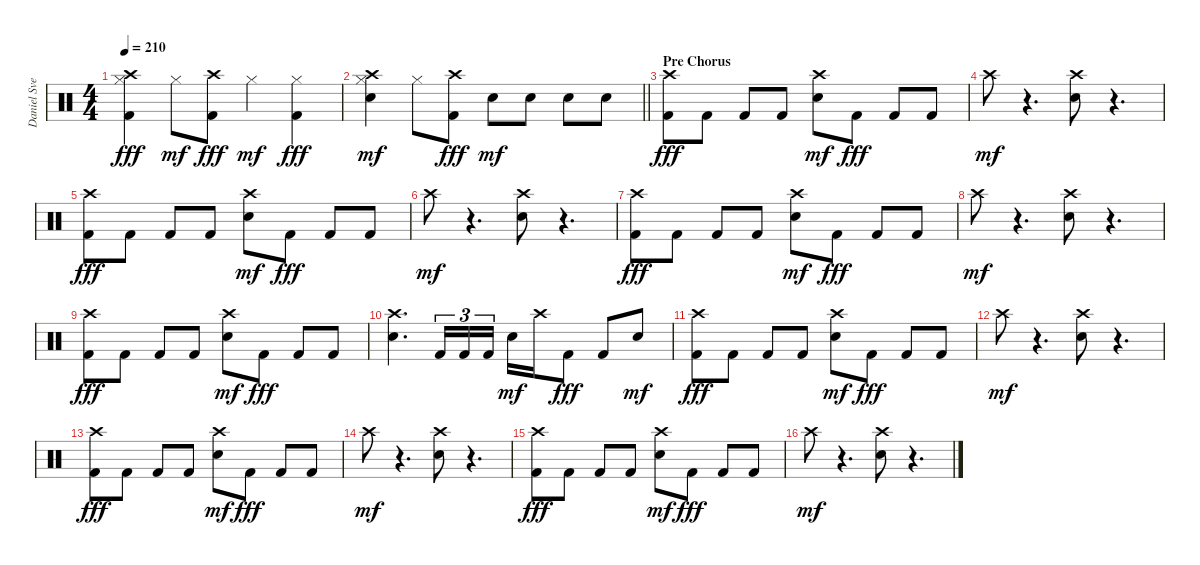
\track ("Daniel Svensson" "Daniel Sve") {instrument percussion}
\staff {score}
\articulation defaults
\ts (4 4)
\tempo 210
\clef neutral
\ks c
("Crash high (hit)" "Hi-Hat (closed)" "Kick (hit) 2").4{dy fff} "Hi-Hat (closed)".8{dy mf} ("Crash high (hit)" "Kick (hit) 2").8{dy fff} "Hi-Hat (closed)".4{dy mf} ("Hi-Hat (closed)" "Kick (hit) 2").4{dy fff} |
\barLineRight lightlight
("Crash high (hit)" "Hi-Hat (closed)" "Electric Snare (hit)").4{dy mf} "Hi-Hat (closed)".8 ("Crash high (hit)" "Kick (hit) 2").8{dy fff} "Electric Snare (hit)".8{dy mf} "Electric Snare (hit)".8 "Electric Snare (hit)".8 "Electric Snare (hit)".8 |
\section ("" "Pre Chorus")
("Crash high (hit)" "Kick (hit) 2").8{dy fff} "Kick (hit) 2".8 "Kick (hit) 2".8 "Kick (hit) 2".8 ("Crash high (hit)" "Electric Snare (hit)").8{dy mf} "Kick (hit) 2".8{dy fff} "Kick (hit) 2".8 "Kick (hit) 2".8 |
"Crash high (hit)".8{dy mf} r.4{d} ("Crash high (hit)" "Electric Snare (hit)").8 r.4{d} |
("Crash high (hit)" "Kick (hit) 2").8{dy fff} "Kick (hit) 2".8 "Kick (hit) 2".8 "Kick (hit) 2".8 ("Crash high (hit)" "Electric Snare (hit)").8{dy mf} "Kick (hit) 2".8{dy fff} "Kick (hit) 2".8 "Kick (hit) 2".8 |
"Crash high (hit)".8{dy mf} r.4{d} ("Crash high (hit)" "Electric Snare (hit)").8 r.4{d} |
("Crash high (hit)" "Kick (hit) 2").8{dy fff} "Kick (hit) 2".8 "Kick (hit) 2".8 "Kick (hit) 2".8 ("Crash high (hit)" "Electric Snare (hit)").8{dy mf} "Kick (hit) 2".8{dy fff} "Kick (hit) 2".8 "Kick (hit) 2".8 |
"Crash high (hit)".8{dy mf} r.4{d} ("Crash high (hit)" "Electric Snare (hit)").8 r.4{d} |
("Crash high (hit)" "Kick (hit) 2").8{dy fff} "Kick (hit) 2".8 "Kick (hit) 2".8 "Kick (hit) 2".8 ("Crash high (hit)" "Electric Snare (hit)").8{dy mf} "Kick (hit) 2".8{dy fff} "Kick (hit) 2".8 "Kick (hit) 2".8 |
("Crash high (hit)" "Electric Snare (hit)").4{d} "Kick (hit) 2".16{tu (3 2)} "Kick (hit) 2".16{tu (3 2)} "Kick (hit) 2".16{tu (3 2)} "Electric Snare (hit)".16{dy mf} "Crash high (hit)".16 "Kick (hit) 2".8{dy fff} "Kick (hit) 2".8 "Electric Snare (hit)".8{dy mf} |
("Crash high (hit)" "Kick (hit) 2").8{dy fff} "Kick (hit) 2".8 "Kick (hit) 2".8 "Kick (hit) 2".8 ("Crash high (hit)" "Electric Snare (hit)").8{dy mf} "Kick (hit) 2".8{dy fff} "Kick (hit) 2".8 "Kick (hit) 2".8 |
"Crash high (hit)".8{dy mf} r.4{d} ("Crash high (hit)" "Electric Snare (hit)").8 r.4{d} |
("Crash high (hit)" "Kick (hit) 2").8{dy fff} "Kick (hit) 2".8 "Kick (hit) 2".8 "Kick (hit) 2".8 ("Crash high (hit)" "Electric Snare (hit)").8{dy mf} "Kick (hit) 2".8{dy fff} "Kick (hit) 2".8 "Kick (hit) 2".8 |
"Crash high (hit)".8{dy mf} r.4{d} ("Crash high (hit)" "Electric Snare (hit)").8 r.4{d} |
("Crash high (hit)" "Kick (hit) 2").8{dy fff} "Kick (hit) 2".8 "Kick (hit) 2".8 "Kick (hit) 2".8 ("Crash high (hit)" "Electric Snare (hit)").8{dy mf} "Kick (hit) 2".8{dy fff} "Kick (hit) 2".8 "Kick (hit) 2".8 |
"Crash high (hit)".8{dy mf} r.4{d} ("Crash high (hit)" "Electric Snare (hit)").8 r.4{d}
